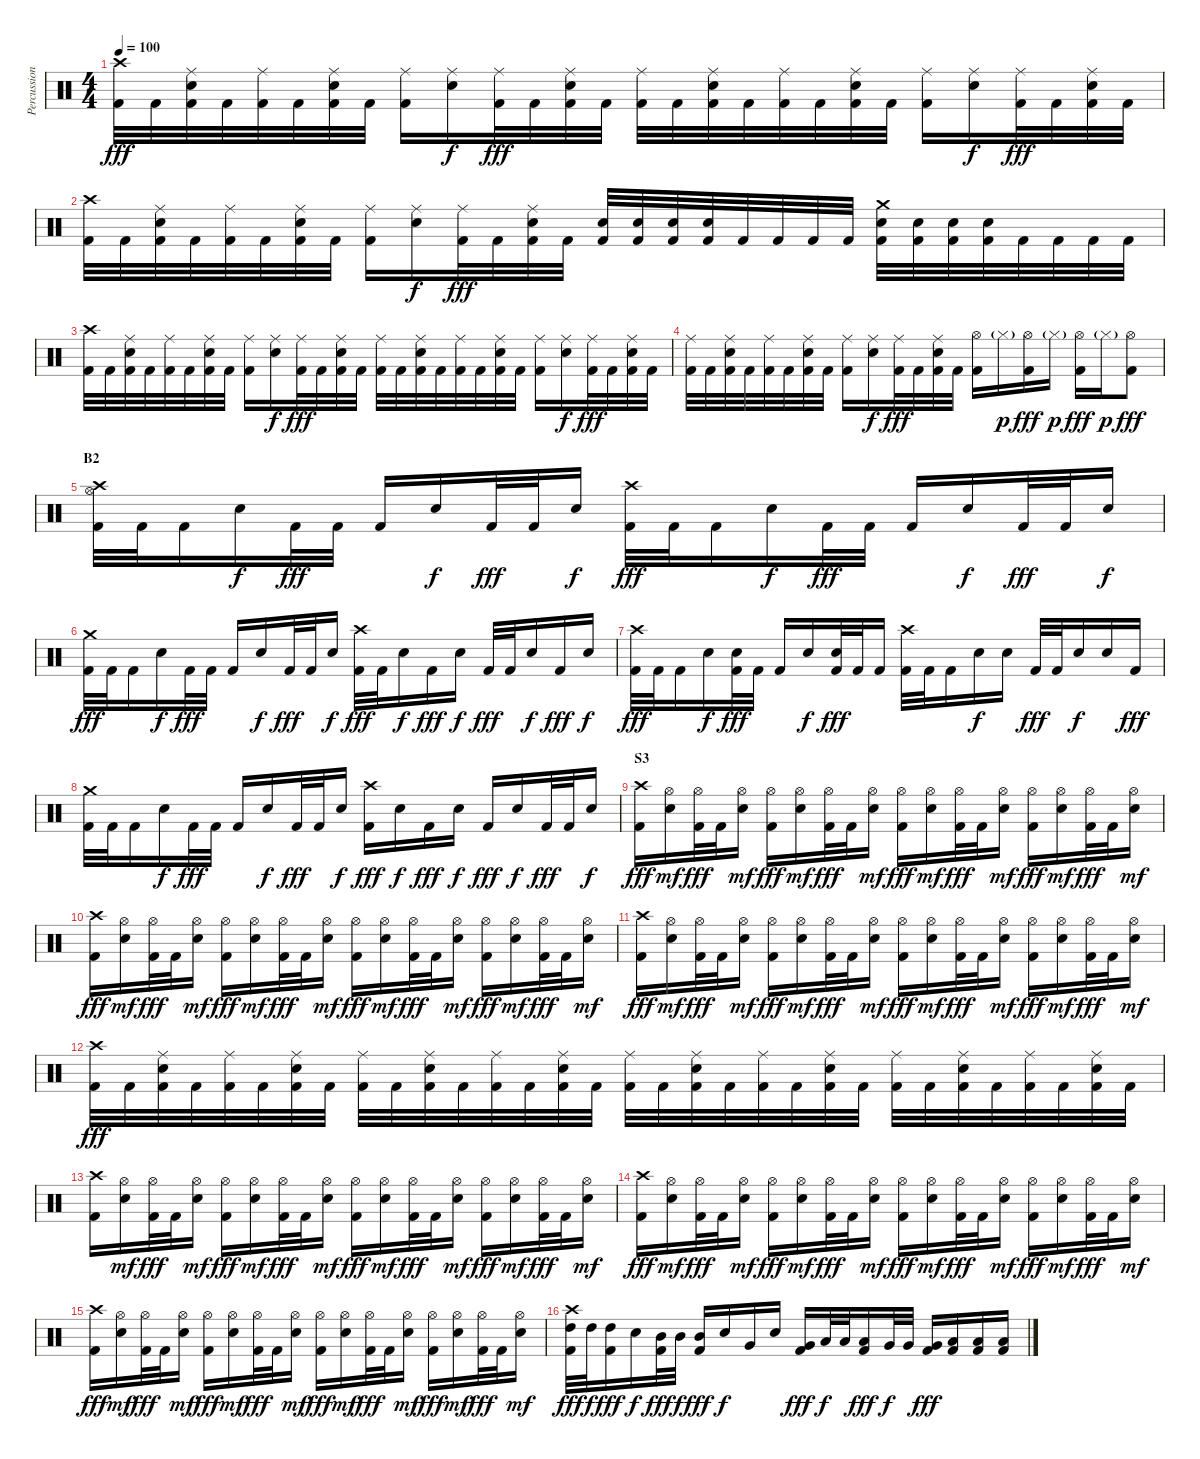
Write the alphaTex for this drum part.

\track ("Percussion" "Percussion") {instrument percussion}
\staff {score}
\articulation defaults
\ts (4 4)
\tempo 100
\clef neutral
\ks c
("Crash high (hit)" "Kick (hit) 2").32{dy fff} "Kick (hit) 2".32 ("Ride (middle)" "Snare (hit) 2" "Kick (hit) 2").32 "Kick (hit) 2".32 ("Ride (middle)" "Kick (hit) 2").32 "Kick (hit) 2".32 ("Ride (middle)" "Snare (hit) 2" "Kick (hit) 2").32 "Kick (hit) 2".32 ("Ride (middle)" "Kick (hit) 2").16 ("Ride (middle)" "Snare (hit) 2").16{dy f} ("Ride (middle)" "Kick (hit) 2").32{dy fff} "Kick (hit) 2".32 ("Ride (middle)" "Snare (hit) 2" "Kick (hit) 2").32 "Kick (hit) 2".32 ("Ride (middle)" "Kick (hit) 2").32 "Kick (hit) 2".32 ("Ride (middle)" "Snare (hit) 2" "Kick (hit) 2").32 "Kick (hit) 2".32 ("Ride (middle)" "Kick (hit) 2").32 "Kick (hit) 2".32 ("Ride (middle)" "Snare (hit) 2" "Kick (hit) 2").32 "Kick (hit) 2".32 ("Ride (middle)" "Kick (hit) 2").16 ("Ride (middle)" "Snare (hit) 2").16{dy f} ("Ride (middle)" "Kick (hit) 2").32{dy fff} "Kick (hit) 2".32 ("Ride (middle)" "Snare (hit) 2" "Kick (hit) 2").32 "Kick (hit) 2".32 |
("Crash high (hit)" "Kick (hit) 2").32 "Kick (hit) 2".32 ("Ride (middle)" "Snare (hit) 2" "Kick (hit) 2").32 "Kick (hit) 2".32 ("Ride (middle)" "Kick (hit) 2").32 "Kick (hit) 2".32 ("Ride (middle)" "Snare (hit) 2" "Kick (hit) 2").32 "Kick (hit) 2".32 ("Ride (middle)" "Kick (hit) 2").16 ("Ride (middle)" "Snare (hit) 2").16{dy f} ("Ride (middle)" "Kick (hit) 2").32{dy fff} "Kick (hit) 2".32 ("Ride (middle)" "Snare (hit) 2" "Kick (hit) 2").32 "Kick (hit) 2".32 ("Snare (hit) 2" "Kick (hit) 2").32 ("Snare (hit) 2" "Kick (hit) 2").32 ("Snare (hit) 2" "Kick (hit) 2").32 ("Snare (hit) 2" "Kick (hit) 2").32 "Kick (hit) 2".32 "Kick (hit) 2".32 "Kick (hit) 2".32 "Kick (hit) 2".32 ("Crash medium (hit)" "Snare (hit) 2" "Kick (hit) 2").32 ("Snare (hit) 2" "Kick (hit) 2").32 ("Snare (hit) 2" "Kick (hit) 2").32 ("Snare (hit) 2" "Kick (hit) 2").32 "Kick (hit) 2".32 "Kick (hit) 2".32 "Kick (hit) 2".32 "Kick (hit) 2".32 |
("Crash high (hit)" "Kick (hit) 2").32 "Kick (hit) 2".32 ("Ride (middle)" "Snare (hit) 2" "Kick (hit) 2").32 "Kick (hit) 2".32 ("Ride (middle)" "Kick (hit) 2").32 "Kick (hit) 2".32 ("Ride (middle)" "Snare (hit) 2" "Kick (hit) 2").32 "Kick (hit) 2".32 ("Ride (middle)" "Kick (hit) 2").16 ("Ride (middle)" "Snare (hit) 2").16{dy f} ("Ride (middle)" "Kick (hit) 2").32{dy fff} "Kick (hit) 2".32 ("Ride (middle)" "Snare (hit) 2" "Kick (hit) 2").32 "Kick (hit) 2".32 ("Ride (middle)" "Kick (hit) 2").32 "Kick (hit) 2".32 ("Ride (middle)" "Snare (hit) 2" "Kick (hit) 2").32 "Kick (hit) 2".32 ("Ride (middle)" "Kick (hit) 2").32 "Kick (hit) 2".32 ("Ride (middle)" "Snare (hit) 2" "Kick (hit) 2").32 "Kick (hit) 2".32 ("Ride (middle)" "Kick (hit) 2").16 ("Ride (middle)" "Snare (hit) 2").16{dy f} ("Ride (middle)" "Kick (hit) 2").32{dy fff} "Kick (hit) 2".32 ("Ride (middle)" "Snare (hit) 2" "Kick (hit) 2").32 "Kick (hit) 2".32 |
("Ride (middle)" "Kick (hit) 2").32 "Kick (hit) 2".32 ("Ride (middle)" "Snare (hit) 2" "Kick (hit) 2").32 "Kick (hit) 2".32 ("Ride (middle)" "Kick (hit) 2").32 "Kick (hit) 2".32 ("Ride (middle)" "Snare (hit) 2" "Kick (hit) 2").32 "Kick (hit) 2".32 ("Ride (middle)" "Kick (hit) 2").16 ("Ride (middle)" "Snare (hit) 2").16{dy f} ("Ride (middle)" "Kick (hit) 2").32{dy fff} "Kick (hit) 2".32 ("Ride (middle)" "Snare (hit) 2" "Kick (hit) 2").32 "Kick (hit) 2".32 ("Hi-Hat (open)" "Kick (hit) 2").16 "Hi-Hat (closed)"{g}.16{dy p} ("Hi-Hat (open)" "Kick (hit) 2").16{dy fff} "Hi-Hat (closed)"{g}.16{dy p} ("Hi-Hat (open)" "Kick (hit) 2").16{dy fff} "Hi-Hat (closed)"{g}.16{dy p} ("Hi-Hat (open)" "Kick (hit) 2").8{dy fff} |
\section ("" "B2")
("Crash high (hit)" "Hi-Hat (open)" "Kick (hit) 2").32 "Kick (hit) 2".32 "Kick (hit) 2".16 "Snare (hit) 2".16{dy f} "Kick (hit) 2".32{dy fff} "Kick (hit) 2".32 "Kick (hit) 2".16 "Snare (hit) 2".16{dy f} "Kick (hit) 2".32{dy fff} "Kick (hit) 2".32 "Snare (hit) 2".16{dy f} ("Crash high (hit)" "Kick (hit) 2").32{dy fff} "Kick (hit) 2".32 "Kick (hit) 2".16 "Snare (hit) 2".16{dy f} "Kick (hit) 2".32{dy fff} "Kick (hit) 2".32 "Kick (hit) 2".16 "Snare (hit) 2".16{dy f} "Kick (hit) 2".32{dy fff} "Kick (hit) 2".32 "Snare (hit) 2".16{dy f} |
("Crash medium (hit)" "Kick (hit) 2").32{dy fff} "Kick (hit) 2".32 "Kick (hit) 2".16 "Snare (hit) 2".16{dy f} "Kick (hit) 2".32{dy fff} "Kick (hit) 2".32 "Kick (hit) 2".16 "Snare (hit) 2".16{dy f} "Kick (hit) 2".32{dy fff} "Kick (hit) 2".32 "Snare (hit) 2".16{dy f} ("Crash high (hit)" "Kick (hit) 2").32{dy fff} "Kick (hit) 2".32 "Snare (hit) 2".16{dy f} "Kick (hit) 2".16{dy fff} "Snare (hit) 2".16{dy f} "Kick (hit) 2".32{dy fff} "Kick (hit) 2".32 "Snare (hit) 2".16{dy f} "Kick (hit) 2".16{dy fff} "Snare (hit) 2".16{dy f} |
("Crash high (hit)" "Kick (hit) 2").32{dy fff} "Kick (hit) 2".32 "Kick (hit) 2".16 "Snare (hit) 2".16{dy f} ("Snare (hit) 2" "Kick (hit) 2").32{dy fff} "Kick (hit) 2".32 "Kick (hit) 2".16 "Snare (hit) 2".16{dy f} ("Snare (hit) 2" "Kick (hit) 2").32{dy fff} "Kick (hit) 2".32 "Kick (hit) 2".16 ("Crash high (hit)" "Kick (hit) 2").32 "Kick (hit) 2".32 "Kick (hit) 2".16 "Snare (hit) 2".16{dy f} "Snare (hit) 2".16 "Kick (hit) 2".32{dy fff} "Kick (hit) 2".32 "Snare (hit) 2".16{dy f} "Snare (hit) 2".16 "Kick (hit) 2".16{dy fff} |
("Crash medium (hit)" "Kick (hit) 2").32 "Kick (hit) 2".32 "Kick (hit) 2".16 "Snare (hit) 2".16{dy f} "Kick (hit) 2".32{dy fff} "Kick (hit) 2".32 "Kick (hit) 2".16 "Snare (hit) 2".16{dy f} "Kick (hit) 2".32{dy fff} "Kick (hit) 2".32 "Snare (hit) 2".16{dy f} ("Crash high (hit)" "Kick (hit) 2").16{dy fff} "Snare (hit) 2".16{dy f} "Kick (hit) 2".16{dy fff} "Snare (hit) 2".16{dy f} "Kick (hit) 2".16{dy fff} "Snare (hit) 2".16{dy f} "Kick (hit) 2".32{dy fff} "Kick (hit) 2".32 "Snare (hit) 2".16{dy f} |
\section ("" "S3")
("Crash high (hit)" "Kick (hit) 2").16{dy fff} ("Hi-Hat (open)" "Snare (hit) 2").16{dy mf} ("Hi-Hat (open)" "Kick (hit) 2").32{dy fff} "Kick (hit) 2".32 ("Hi-Hat (open)" "Snare (hit) 2").16{dy mf} ("Hi-Hat (open)" "Kick (hit) 2").16{dy fff} ("Hi-Hat (open)" "Snare (hit) 2").16{dy mf} ("Hi-Hat (open)" "Kick (hit) 2").32{dy fff} "Kick (hit) 2".32 ("Hi-Hat (open)" "Snare (hit) 2").16{dy mf} ("Hi-Hat (open)" "Kick (hit) 2").16{dy fff} ("Hi-Hat (open)" "Snare (hit) 2").16{dy mf} ("Hi-Hat (open)" "Kick (hit) 2").32{dy fff} "Kick (hit) 2".32 ("Hi-Hat (open)" "Snare (hit) 2").16{dy mf} ("Hi-Hat (open)" "Kick (hit) 2").16{dy fff} ("Hi-Hat (open)" "Snare (hit) 2").16{dy mf} ("Hi-Hat (open)" "Kick (hit) 2").32{dy fff} "Kick (hit) 2".32 ("Hi-Hat (open)" "Snare (hit) 2").16{dy mf} |
("Crash high (hit)" "Kick (hit) 2").16{dy fff} ("Hi-Hat (open)" "Snare (hit) 2").16{dy mf} ("Hi-Hat (open)" "Kick (hit) 2").32{dy fff} "Kick (hit) 2".32 ("Hi-Hat (open)" "Snare (hit) 2").16{dy mf} ("Hi-Hat (open)" "Kick (hit) 2").16{dy fff} ("Hi-Hat (open)" "Snare (hit) 2").16{dy mf} ("Hi-Hat (open)" "Kick (hit) 2").32{dy fff} "Kick (hit) 2".32 ("Hi-Hat (open)" "Snare (hit) 2").16{dy mf} ("Hi-Hat (open)" "Kick (hit) 2").16{dy fff} ("Hi-Hat (open)" "Snare (hit) 2").16{dy mf} ("Hi-Hat (open)" "Kick (hit) 2").32{dy fff} "Kick (hit) 2".32 ("Hi-Hat (open)" "Snare (hit) 2").16{dy mf} ("Hi-Hat (open)" "Kick (hit) 2").16{dy fff} ("Hi-Hat (open)" "Snare (hit) 2").16{dy mf} ("Hi-Hat (open)" "Kick (hit) 2").32{dy fff} "Kick (hit) 2".32 ("Hi-Hat (open)" "Snare (hit) 2").16{dy mf} |
("Crash high (hit)" "Kick (hit) 2").16{dy fff} ("Hi-Hat (open)" "Snare (hit) 2").16{dy mf} ("Hi-Hat (open)" "Kick (hit) 2").32{dy fff} "Kick (hit) 2".32 ("Hi-Hat (open)" "Snare (hit) 2").16{dy mf} ("Hi-Hat (open)" "Kick (hit) 2").16{dy fff} ("Hi-Hat (open)" "Snare (hit) 2").16{dy mf} ("Hi-Hat (open)" "Kick (hit) 2").32{dy fff} "Kick (hit) 2".32 ("Hi-Hat (open)" "Snare (hit) 2").16{dy mf} ("Hi-Hat (open)" "Kick (hit) 2").16{dy fff} ("Hi-Hat (open)" "Snare (hit) 2").16{dy mf} ("Hi-Hat (open)" "Kick (hit) 2").32{dy fff} "Kick (hit) 2".32 ("Hi-Hat (open)" "Snare (hit) 2").16{dy mf} ("Hi-Hat (open)" "Kick (hit) 2").16{dy fff} ("Hi-Hat (open)" "Snare (hit) 2").16{dy mf} ("Hi-Hat (open)" "Kick (hit) 2").32{dy fff} "Kick (hit) 2".32 ("Hi-Hat (open)" "Snare (hit) 2").16{dy mf} |
("Crash high (hit)" "Kick (hit) 2").32{dy fff} "Kick (hit) 2".32 ("Ride (middle)" "Snare (hit) 2" "Kick (hit) 2").32 "Kick (hit) 2".32 ("Ride (middle)" "Kick (hit) 2").32 "Kick (hit) 2".32 ("Ride (middle)" "Snare (hit) 2" "Kick (hit) 2").32 "Kick (hit) 2".32 ("Ride (middle)" "Kick (hit) 2").32 "Kick (hit) 2".32 ("Ride (middle)" "Snare (hit) 2" "Kick (hit) 2").32 "Kick (hit) 2".32 ("Ride (middle)" "Kick (hit) 2").32 "Kick (hit) 2".32 ("Ride (middle)" "Snare (hit) 2" "Kick (hit) 2").32 "Kick (hit) 2".32 ("Ride (middle)" "Kick (hit) 2").32 "Kick (hit) 2".32 ("Ride (middle)" "Snare (hit) 2" "Kick (hit) 2").32 "Kick (hit) 2".32 ("Ride (middle)" "Kick (hit) 2").32 "Kick (hit) 2".32 ("Ride (middle)" "Snare (hit) 2" "Kick (hit) 2").32 "Kick (hit) 2".32 ("Ride (middle)" "Kick (hit) 2").32 "Kick (hit) 2".32 ("Ride (middle)" "Snare (hit) 2" "Kick (hit) 2").32 "Kick (hit) 2".32 ("Ride (middle)" "Kick (hit) 2").32 "Kick (hit) 2".32 ("Ride (middle)" "Snare (hit) 2" "Kick (hit) 2").32 "Kick (hit) 2".32 |
("Crash high (hit)" "Kick (hit) 2").16 ("Hi-Hat (open)" "Snare (hit) 2").16{dy mf} ("Hi-Hat (open)" "Kick (hit) 2").32{dy fff} "Kick (hit) 2".32 ("Hi-Hat (open)" "Snare (hit) 2").16{dy mf} ("Hi-Hat (open)" "Kick (hit) 2").16{dy fff} ("Hi-Hat (open)" "Snare (hit) 2").16{dy mf} ("Hi-Hat (open)" "Kick (hit) 2").32{dy fff} "Kick (hit) 2".32 ("Hi-Hat (open)" "Snare (hit) 2").16{dy mf} ("Hi-Hat (open)" "Kick (hit) 2").16{dy fff} ("Hi-Hat (open)" "Snare (hit) 2").16{dy mf} ("Hi-Hat (open)" "Kick (hit) 2").32{dy fff} "Kick (hit) 2".32 ("Hi-Hat (open)" "Snare (hit) 2").16{dy mf} ("Hi-Hat (open)" "Kick (hit) 2").16{dy fff} ("Hi-Hat (open)" "Snare (hit) 2").16{dy mf} ("Hi-Hat (open)" "Kick (hit) 2").32{dy fff} "Kick (hit) 2".32 ("Hi-Hat (open)" "Snare (hit) 2").16{dy mf} |
("Crash high (hit)" "Kick (hit) 2").16{dy fff} ("Hi-Hat (open)" "Snare (hit) 2").16{dy mf} ("Hi-Hat (open)" "Kick (hit) 2").32{dy fff} "Kick (hit) 2".32 ("Hi-Hat (open)" "Snare (hit) 2").16{dy mf} ("Hi-Hat (open)" "Kick (hit) 2").16{dy fff} ("Hi-Hat (open)" "Snare (hit) 2").16{dy mf} ("Hi-Hat (open)" "Kick (hit) 2").32{dy fff} "Kick (hit) 2".32 ("Hi-Hat (open)" "Snare (hit) 2").16{dy mf} ("Hi-Hat (open)" "Kick (hit) 2").16{dy fff} ("Hi-Hat (open)" "Snare (hit) 2").16{dy mf} ("Hi-Hat (open)" "Kick (hit) 2").32{dy fff} "Kick (hit) 2".32 ("Hi-Hat (open)" "Snare (hit) 2").16{dy mf} ("Hi-Hat (open)" "Kick (hit) 2").16{dy fff} ("Hi-Hat (open)" "Snare (hit) 2").16{dy mf} ("Hi-Hat (open)" "Kick (hit) 2").32{dy fff} "Kick (hit) 2".32 ("Hi-Hat (open)" "Snare (hit) 2").16{dy mf} |
("Crash high (hit)" "Kick (hit) 2").16{dy fff} ("Hi-Hat (open)" "Snare (hit) 2").16{dy mf} ("Hi-Hat (open)" "Kick (hit) 2").32{dy fff} "Kick (hit) 2".32 ("Hi-Hat (open)" "Snare (hit) 2").16{dy mf} ("Hi-Hat (open)" "Kick (hit) 2").16{dy fff} ("Hi-Hat (open)" "Snare (hit) 2").16{dy mf} ("Hi-Hat (open)" "Kick (hit) 2").32{dy fff} "Kick (hit) 2".32 ("Hi-Hat (open)" "Snare (hit) 2").16{dy mf} ("Hi-Hat (open)" "Kick (hit) 2").16{dy fff} ("Hi-Hat (open)" "Snare (hit) 2").16{dy mf} ("Hi-Hat (open)" "Kick (hit) 2").32{dy fff} "Kick (hit) 2".32 ("Hi-Hat (open)" "Snare (hit) 2").16{dy mf} ("Hi-Hat (open)" "Kick (hit) 2").16{dy fff} ("Hi-Hat (open)" "Snare (hit) 2").16{dy mf} ("Hi-Hat (open)" "Kick (hit) 2").32{dy fff} "Kick (hit) 2".32 ("Hi-Hat (open)" "Snare (hit) 2").16{dy mf} |
("Crash high (hit)" "High Tom (hit)" "Kick (hit) 2").32{dy fff} "High Tom (hit)".32{dy f} ("High Tom (hit)" "Kick (hit) 2").16{dy fff} "Snare (hit) 2".16{dy f} ("Mid Tom (hit)" "Kick (hit) 2").32{dy fff} "Mid Tom (hit)".32{dy f} ("Mid Tom (hit)" "Kick (hit) 2").16{dy fff} "Snare (hit) 2".16{dy f} "Very Low Tom (hit)".16 "Snare (hit) 2".16 ("Very Low Tom (hit)" "Kick (hit) 2").16{dy fff} "Low Tom (hit)".32{dy f} "Low Tom (hit)".32 ("Low Tom (hit)" "Kick (hit) 2").16{dy fff} "Very Low Tom (hit)".32{dy f} "Very Low Tom (hit)".32 ("Very Low Tom (hit)" "Kick (hit) 2").16{dy fff} ("Low Floor Tom (hit)" "Kick (hit) 2").16 ("Low Floor Tom (hit)" "Kick (hit) 2").16 ("Low Floor Tom (hit)" "Kick (hit) 2").16
